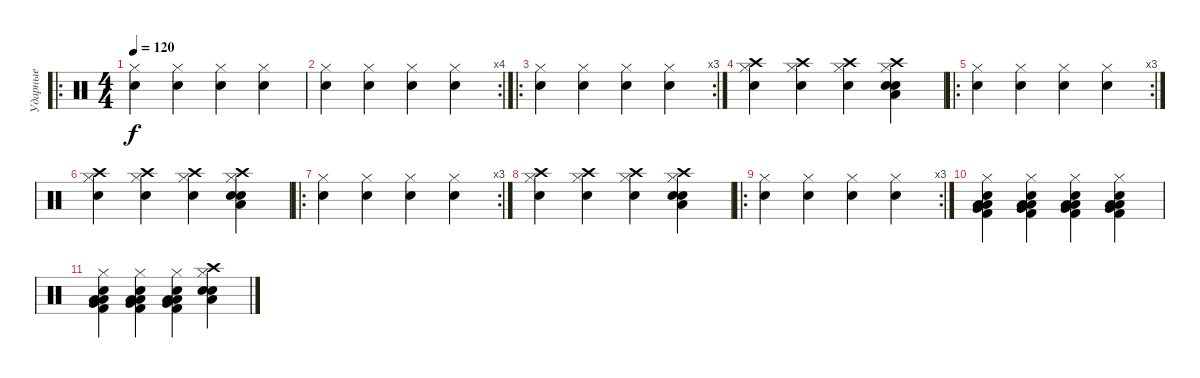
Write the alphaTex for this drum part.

\track ("Ударные" "Ударные") {instrument percussion}
\staff {score}
\articulation defaults
\ro
\ts (4 4)
\tempo 120
\clef neutral
\ks c
("Hi-Hat (closed)" "Snare (hit) 2").4{dy f} ("Hi-Hat (closed)" "Snare (hit) 2").4 ("Hi-Hat (closed)" "Snare (hit) 2").4 ("Hi-Hat (closed)" "Snare (hit) 2").4 |
\rc 4
("Hi-Hat (closed)" "Snare (hit) 2").4 ("Hi-Hat (closed)" "Snare (hit) 2").4 ("Hi-Hat (closed)" "Snare (hit) 2").4 ("Hi-Hat (closed)" "Snare (hit) 2").4 |
\ro
\rc 3
("Hi-Hat (closed)" "Snare (hit) 2").4 ("Hi-Hat (closed)" "Snare (hit) 2").4 ("Hi-Hat (closed)" "Snare (hit) 2").4 ("Hi-Hat (closed)" "Snare (hit) 2").4 |
("Hi-Hat (closed)" "Snare (hit) 2" "Crash high (hit)").4 ("Hi-Hat (closed)" "Snare (hit) 2" "Crash high (hit)").4 ("Hi-Hat (closed)" "Snare (hit) 2" "Crash high (hit)").4 ("Hi-Hat (closed)" "Electric Snare (hit)" "Low Floor Tom (hit)" "Snare (hit) 2" "Crash high (hit)").4 |
\ro
\rc 3
("Hi-Hat (closed)" "Snare (hit) 2").4 ("Hi-Hat (closed)" "Snare (hit) 2").4 ("Hi-Hat (closed)" "Snare (hit) 2").4 ("Hi-Hat (closed)" "Snare (hit) 2").4 |
("Hi-Hat (closed)" "Snare (hit) 2" "Crash high (hit)").4 ("Hi-Hat (closed)" "Snare (hit) 2" "Crash high (hit)").4 ("Hi-Hat (closed)" "Snare (hit) 2" "Crash high (hit)").4 ("Hi-Hat (closed)" "Electric Snare (hit)" "Low Floor Tom (hit)" "Snare (hit) 2" "Crash high (hit)").4 |
\ro
\rc 3
("Hi-Hat (closed)" "Snare (hit) 2").4 ("Hi-Hat (closed)" "Snare (hit) 2").4 ("Hi-Hat (closed)" "Snare (hit) 2").4 ("Hi-Hat (closed)" "Snare (hit) 2").4 |
("Hi-Hat (closed)" "Snare (hit) 2" "Crash high (hit)").4 ("Hi-Hat (closed)" "Snare (hit) 2" "Crash high (hit)").4 ("Hi-Hat (closed)" "Snare (hit) 2" "Crash high (hit)").4 ("Hi-Hat (closed)" "Electric Snare (hit)" "Low Floor Tom (hit)" "Snare (hit) 2" "Crash high (hit)").4 |
\ro
\rc 3
("Hi-Hat (closed)" "Snare (hit) 2").4 ("Hi-Hat (closed)" "Snare (hit) 2").4 ("Hi-Hat (closed)" "Snare (hit) 2").4 ("Hi-Hat (closed)" "Snare (hit) 2").4 |
("Hi-Hat (closed)" "Kick (hit) 2" "Low Tom (hit)" "Snare (hit) 2" "Low Floor Tom (hit)" "Very Low Tom (hit)").4 ("Hi-Hat (closed)" "Kick (hit) 2" "Low Tom (hit)" "Snare (hit) 2" "Low Floor Tom (hit)" "Very Low Tom (hit)").4 ("Hi-Hat (closed)" "Kick (hit) 2" "Low Tom (hit)" "Snare (hit) 2" "Low Floor Tom (hit)" "Very Low Tom (hit)").4 ("Hi-Hat (closed)" "Kick (hit) 2" "Low Tom (hit)" "Snare (hit) 2" "Low Floor Tom (hit)" "Very Low Tom (hit)").4 |
("Hi-Hat (closed)" "Kick (hit) 2" "Low Tom (hit)" "Snare (hit) 2" "Low Floor Tom (hit)" "Very Low Tom (hit)").4 ("Hi-Hat (closed)" "Kick (hit) 2" "Low Tom (hit)" "Snare (hit) 2" "Low Floor Tom (hit)" "Very Low Tom (hit)").4 ("Hi-Hat (closed)" "Kick (hit) 2" "Low Tom (hit)" "Snare (hit) 2" "Low Floor Tom (hit)" "Very Low Tom (hit)").4 ("Hi-Hat (closed)" "Electric Snare (hit)" "Low Floor Tom (hit)" "Snare (hit) 2" "Crash high (hit)").4
